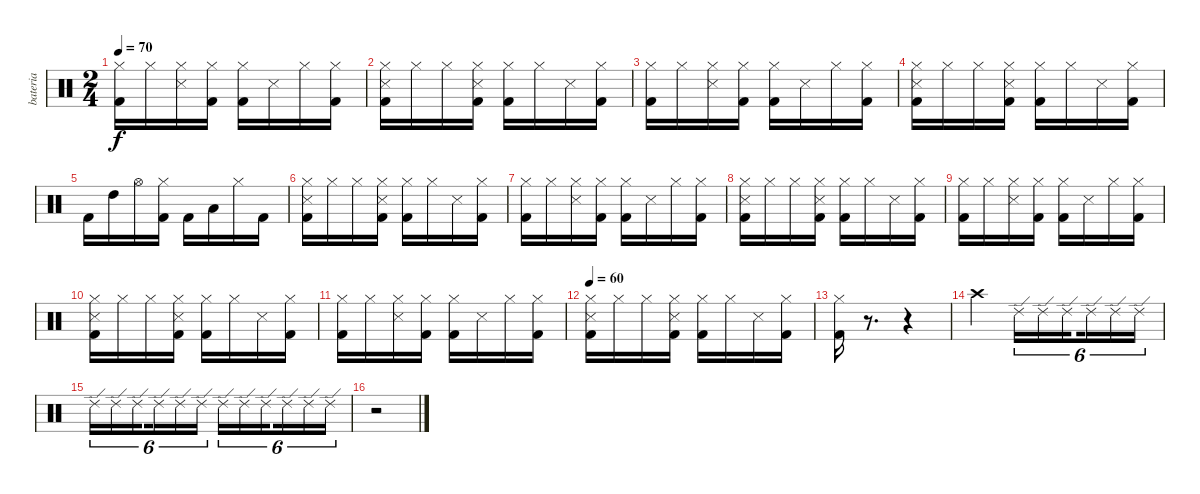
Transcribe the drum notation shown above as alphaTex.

\track ("bateria" "bateria") {instrument percussion}
\staff {score}
\articulation defaults
\ts (2 4)
\tempo 70
\clef neutral
\ks c
("Hi-Hat (closed)" "Kick (hit) 2").16{dy f} "Hi-Hat (closed)".16 ("Hi-Hat (closed)" "Snare (side stick) 3").16 ("Hi-Hat (closed)" "Kick (hit) 2").16 ("Hi-Hat (closed)" "Kick (hit) 2").16 "Snare (side stick) 3".16 "Hi-Hat (closed)".16 ("Hi-Hat (closed)" "Kick (hit) 2").16 |
("Hi-Hat (closed)" "Snare (side stick) 3" "Kick (hit) 2").16 "Hi-Hat (closed)".16 "Hi-Hat (closed)".16 ("Hi-Hat (closed)" "Snare (side stick) 3" "Kick (hit) 2").16 ("Hi-Hat (closed)" "Kick (hit) 2").16 "Hi-Hat (closed)".16 "Snare (side stick) 3".16 ("Hi-Hat (closed)" "Kick (hit) 2").16 |
("Hi-Hat (closed)" "Kick (hit) 2").16 "Hi-Hat (closed)".16 ("Hi-Hat (closed)" "Snare (side stick) 3").16 ("Hi-Hat (closed)" "Kick (hit) 2").16 ("Hi-Hat (closed)" "Kick (hit) 2").16 "Snare (side stick) 3".16 "Hi-Hat (closed)".16 ("Hi-Hat (closed)" "Kick (hit) 2").16 |
("Hi-Hat (closed)" "Snare (side stick) 3" "Kick (hit) 2").16 "Hi-Hat (closed)".16 "Hi-Hat (closed)".16 ("Hi-Hat (closed)" "Snare (side stick) 3" "Kick (hit) 2").16 ("Hi-Hat (closed)" "Kick (hit) 2").16 "Hi-Hat (closed)".16 "Snare (side stick) 3".16 ("Hi-Hat (closed)" "Kick (hit) 2").16 |
"Kick (hit) 2".16 "High Tom (hit)".16 "Hi-Hat (open)".16 ("Hi-Hat (closed)" "Kick (hit) 2").16 "Kick (hit) 2".16 "Low Tom (hit)".16 "Hi-Hat (closed)".16 "Kick (hit) 2".16 |
("Hi-Hat (closed)" "Snare (side stick) 3" "Kick (hit) 2").16 "Hi-Hat (closed)".16 "Hi-Hat (closed)".16 ("Hi-Hat (closed)" "Snare (side stick) 3" "Kick (hit) 2").16 ("Hi-Hat (closed)" "Kick (hit) 2").16 "Hi-Hat (closed)".16 "Snare (side stick) 3".16 ("Hi-Hat (closed)" "Kick (hit) 2").16 |
("Hi-Hat (closed)" "Kick (hit) 2").16 "Hi-Hat (closed)".16 ("Hi-Hat (closed)" "Snare (side stick) 3").16 ("Hi-Hat (closed)" "Kick (hit) 2").16 ("Hi-Hat (closed)" "Kick (hit) 2").16 "Snare (side stick) 3".16 "Hi-Hat (closed)".16 ("Hi-Hat (closed)" "Kick (hit) 2").16 |
("Hi-Hat (closed)" "Snare (side stick) 3" "Kick (hit) 2").16 "Hi-Hat (closed)".16 "Hi-Hat (closed)".16 ("Hi-Hat (closed)" "Snare (side stick) 3" "Kick (hit) 2").16 ("Hi-Hat (closed)" "Kick (hit) 2").16 "Hi-Hat (closed)".16 "Snare (side stick) 3".16 ("Hi-Hat (closed)" "Kick (hit) 2").16 |
("Hi-Hat (closed)" "Kick (hit) 2").16 "Hi-Hat (closed)".16 ("Hi-Hat (closed)" "Snare (side stick) 3").16 ("Hi-Hat (closed)" "Kick (hit) 2").16 ("Hi-Hat (closed)" "Kick (hit) 2").16 "Snare (side stick) 3".16 "Hi-Hat (closed)".16 ("Hi-Hat (closed)" "Kick (hit) 2").16 |
("Hi-Hat (closed)" "Snare (side stick) 3" "Kick (hit) 2").16 "Hi-Hat (closed)".16 "Hi-Hat (closed)".16 ("Hi-Hat (closed)" "Snare (side stick) 3" "Kick (hit) 2").16 ("Hi-Hat (closed)" "Kick (hit) 2").16 "Hi-Hat (closed)".16 "Snare (side stick) 3".16 ("Hi-Hat (closed)" "Kick (hit) 2").16 |
("Hi-Hat (closed)" "Kick (hit) 2").16 "Hi-Hat (closed)".16 ("Hi-Hat (closed)" "Snare (side stick) 3").16 ("Hi-Hat (closed)" "Kick (hit) 2").16 ("Hi-Hat (closed)" "Kick (hit) 2").16 "Snare (side stick) 3".16 "Hi-Hat (closed)".16 ("Hi-Hat (closed)" "Kick (hit) 2").16 |
\tempo 60
("Hi-Hat (closed)" "Snare (side stick) 3" "Kick (hit) 2").16 "Hi-Hat (closed)".16 "Hi-Hat (closed)".16 ("Hi-Hat (closed)" "Snare (side stick) 3" "Kick (hit) 2").16 ("Hi-Hat (closed)" "Kick (hit) 2").16 "Hi-Hat (closed)".16 "Snare (side stick) 3".16 ("Hi-Hat (closed)" "Kick (hit) 2").16 |
("Hi-Hat (closed)" "Kick (hit) 2").16 r.8{d} r.4 |
"Crash high (hit)".4 "Ride (edge) 2".16{tu (6 4) volume 8} "Ride (edge) 2".16{tu (6 4)} "Ride (edge) 2".16{tu (6 4) beam splitsecondary} "Ride (edge) 2".16{tu (6 4)} "Ride (edge) 2".16{tu (6 4)} "Ride (edge) 2".16{tu (6 4)} |
"Ride (edge) 2".16{tu (6 4)} "Ride (edge) 2".16{tu (6 4)} "Ride (edge) 2".16{tu (6 4) beam splitsecondary} "Ride (edge) 2".16{tu (6 4)} "Ride (edge) 2".16{tu (6 4)} "Ride (edge) 2".16{tu (6 4)} "Ride (edge) 2".16{tu (6 4)} "Ride (edge) 2".16{tu (6 4)} "Ride (edge) 2".16{tu (6 4) beam splitsecondary} "Ride (edge) 2".16{tu (6 4)} "Ride (edge) 2".16{tu (6 4)} "Ride (edge) 2".16{tu (6 4)} |
r.2
